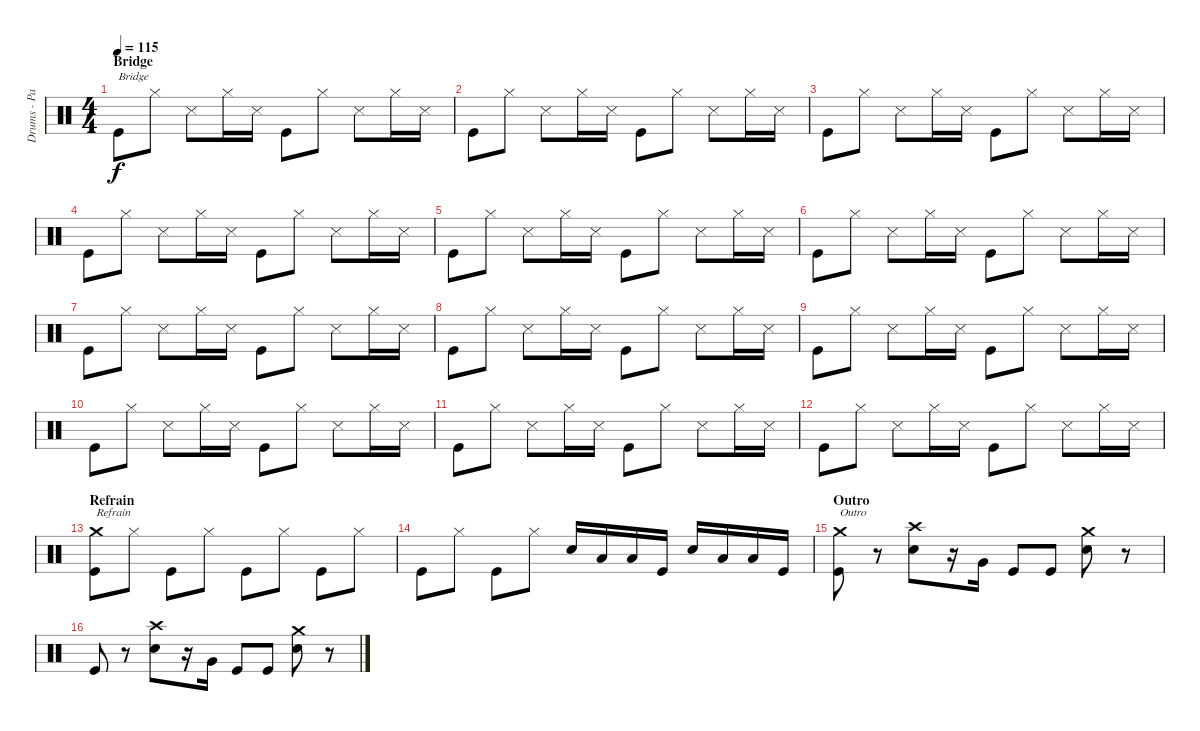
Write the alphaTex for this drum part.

\track ("Drums - Paul Thomson" "Drums - Pa") {instrument percussion}
\staff {score}
\articulation defaults
\ts (4 4)
\section ("" "Bridge")
\tempo 115
\clef neutral
\ks c "Kick (hit)".8{txt "Bridge" dy f} "Hi-Hat (closed)".8 "Snare (side stick) 3".8 "Hi-Hat (closed)".16 "Snare (side stick) 3".16 "Kick (hit)".8 "Hi-Hat (closed)".8 "Snare (side stick) 3".8 "Hi-Hat (closed)".16 "Snare (side stick) 3".16
|
"Kick (hit)".8 "Hi-Hat (closed)".8 "Snare (side stick) 3".8 "Hi-Hat (closed)".16 "Snare (side stick) 3".16 "Kick (hit)".8 "Hi-Hat (closed)".8 "Snare (side stick) 3".8 "Hi-Hat (closed)".16 "Snare (side stick) 3".16 |
"Kick (hit)".8 "Hi-Hat (closed)".8 "Snare (side stick) 3".8 "Hi-Hat (closed)".16 "Snare (side stick) 3".16 "Kick (hit)".8 "Hi-Hat (closed)".8 "Snare (side stick) 3".8 "Hi-Hat (closed)".16 "Snare (side stick) 3".16 |
"Kick (hit)".8 "Hi-Hat (closed)".8 "Snare (side stick) 3".8 "Hi-Hat (closed)".16 "Snare (side stick) 3".16 "Kick (hit)".8 "Hi-Hat (closed)".8 "Snare (side stick) 3".8 "Hi-Hat (closed)".16 "Snare (side stick) 3".16 |
"Kick (hit)".8 "Hi-Hat (closed)".8 "Snare (side stick) 3".8 "Hi-Hat (closed)".16 "Snare (side stick) 3".16 "Kick (hit)".8 "Hi-Hat (closed)".8 "Snare (side stick) 3".8 "Hi-Hat (closed)".16 "Snare (side stick) 3".16 |
"Kick (hit)".8 "Hi-Hat (closed)".8 "Snare (side stick) 3".8 "Hi-Hat (closed)".16 "Snare (side stick) 3".16 "Kick (hit)".8 "Hi-Hat (closed)".8 "Snare (side stick) 3".8 "Hi-Hat (closed)".16 "Snare (side stick) 3".16 |
"Kick (hit)".8 "Hi-Hat (closed)".8 "Snare (side stick) 3".8 "Hi-Hat (closed)".16 "Snare (side stick) 3".16 "Kick (hit)".8 "Hi-Hat (closed)".8 "Snare (side stick) 3".8 "Hi-Hat (closed)".16 "Snare (side stick) 3".16 |
"Kick (hit)".8 "Hi-Hat (closed)".8 "Snare (side stick) 3".8 "Hi-Hat (closed)".16 "Snare (side stick) 3".16 "Kick (hit)".8 "Hi-Hat (closed)".8 "Snare (side stick) 3".8 "Hi-Hat (closed)".16 "Snare (side stick) 3".16 |
"Kick (hit)".8 "Hi-Hat (closed)".8 "Snare (side stick) 3".8 "Hi-Hat (closed)".16 "Snare (side stick) 3".16 "Kick (hit)".8 "Hi-Hat (closed)".8 "Snare (side stick) 3".8 "Hi-Hat (closed)".16 "Snare (side stick) 3".16 |
"Kick (hit)".8 "Hi-Hat (closed)".8 "Snare (side stick) 3".8 "Hi-Hat (closed)".16 "Snare (side stick) 3".16 "Kick (hit)".8 "Hi-Hat (closed)".8 "Snare (side stick) 3".8 "Hi-Hat (closed)".16 "Snare (side stick) 3".16 |
"Kick (hit)".8 "Hi-Hat (closed)".8 "Snare (side stick) 3".8 "Hi-Hat (closed)".16 "Snare (side stick) 3".16 "Kick (hit)".8 "Hi-Hat (closed)".8 "Snare (side stick) 3".8 "Hi-Hat (closed)".16 "Snare (side stick) 3".16 |
"Kick (hit)".8 "Hi-Hat (closed)".8 "Snare (side stick) 3".8 "Hi-Hat (closed)".16 "Snare (side stick) 3".16 "Kick (hit)".8 "Hi-Hat (closed)".8 "Snare (side stick) 3".8 "Hi-Hat (closed)".16 "Snare (side stick) 3".16 |
\section ("" "Refrain")
("Kick (hit)" "Crash medium (hit)").8{txt "Refrain"} "Hi-Hat (closed)".8 "Kick (hit)".8 "Hi-Hat (closed)".8 "Kick (hit)".8 "Hi-Hat (closed)".8 "Kick (hit)".8 "Hi-Hat (closed)".8 |
"Kick (hit)".8 "Hi-Hat (closed)".8 "Kick (hit)".8 "Hi-Hat (closed)".8 "Electric Snare (hit)".16 "Low Floor Tom (hit)".16 "Low Floor Tom (hit)".16 "Kick (hit)".16 "Electric Snare (hit)".16 "Low Floor Tom (hit)".16 "Low Floor Tom (hit)".16 "Kick (hit)".16 |
\section ("" "Outro")
("Kick (hit)" "Crash medium (hit)").8{txt "Outro"} r.8 ("Electric Snare (hit)" "Crash high (hit)").8 r.16 "Very Low Tom (hit)".16 "Kick (hit)".8 "Kick (hit)".8 ("Electric Snare (hit)" "Crash medium (hit)").8 r.8 |
"Kick (hit)".8 r.8 ("Electric Snare (hit)" "Crash high (hit)").8 r.16 "Very Low Tom (hit)".16 "Kick (hit)".8 "Kick (hit)".8 ("Electric Snare (hit)" "Crash medium (hit)").8 r.8
